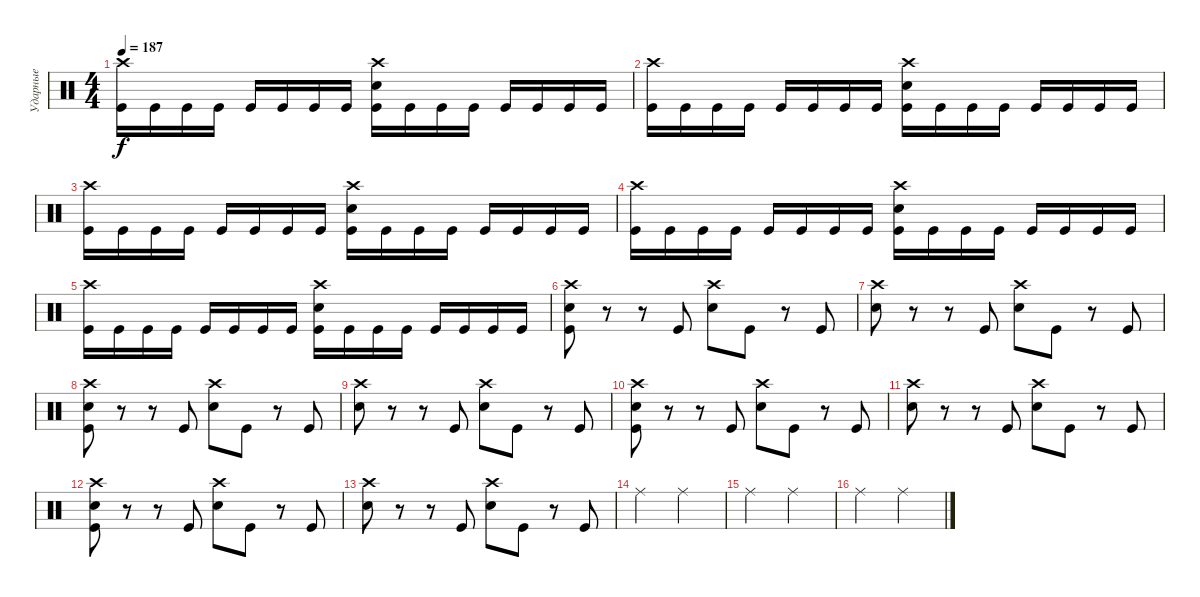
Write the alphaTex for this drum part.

\track ("Ударные" "Ударные") {instrument percussion}
\staff {score}
\articulation defaults
\ts (4 4)
\tempo 187
\clef neutral
\ks c
("Crash high (hit)" "Kick (hit)").16{dy f} "Kick (hit)".16 "Kick (hit)".16 "Kick (hit)".16 "Kick (hit)".16 "Kick (hit)".16 "Kick (hit)".16 "Kick (hit)".16 ("Crash high (hit)" "Electric Snare (hit)" "Kick (hit)").16 "Kick (hit)".16 "Kick (hit)".16 "Kick (hit)".16 "Kick (hit)".16 "Kick (hit)".16 "Kick (hit)".16 "Kick (hit)".16 |
("Crash high (hit)" "Kick (hit)").16 "Kick (hit)".16 "Kick (hit)".16 "Kick (hit)".16 "Kick (hit)".16 "Kick (hit)".16 "Kick (hit)".16 "Kick (hit)".16 ("Crash high (hit)" "Electric Snare (hit)" "Kick (hit)").16 "Kick (hit)".16 "Kick (hit)".16 "Kick (hit)".16 "Kick (hit)".16 "Kick (hit)".16 "Kick (hit)".16 "Kick (hit)".16 |
("Crash high (hit)" "Kick (hit)").16 "Kick (hit)".16 "Kick (hit)".16 "Kick (hit)".16 "Kick (hit)".16 "Kick (hit)".16 "Kick (hit)".16 "Kick (hit)".16 ("Crash high (hit)" "Electric Snare (hit)" "Kick (hit)").16 "Kick (hit)".16 "Kick (hit)".16 "Kick (hit)".16 "Kick (hit)".16 "Kick (hit)".16 "Kick (hit)".16 "Kick (hit)".16 |
("Crash high (hit)" "Kick (hit)").16 "Kick (hit)".16 "Kick (hit)".16 "Kick (hit)".16 "Kick (hit)".16 "Kick (hit)".16 "Kick (hit)".16 "Kick (hit)".16 ("Crash high (hit)" "Electric Snare (hit)" "Kick (hit)").16 "Kick (hit)".16 "Kick (hit)".16 "Kick (hit)".16 "Kick (hit)".16 "Kick (hit)".16 "Kick (hit)".16 "Kick (hit)".16 |
("Crash high (hit)" "Kick (hit)").16 "Kick (hit)".16 "Kick (hit)".16 "Kick (hit)".16 "Kick (hit)".16 "Kick (hit)".16 "Kick (hit)".16 "Kick (hit)".16 ("Crash high (hit)" "Electric Snare (hit)" "Kick (hit)").16 "Kick (hit)".16 "Kick (hit)".16 "Kick (hit)".16 "Kick (hit)".16 "Kick (hit)".16 "Kick (hit)".16 "Kick (hit)".16 |
("Crash high (hit)" "Electric Snare (hit)" "Kick (hit)").8 r.8 r.8 "Kick (hit)".8 ("Crash high (hit)" "Electric Snare (hit)").8 "Kick (hit)".8 r.8 "Kick (hit)".8 |
("Crash high (hit)" "Electric Snare (hit)").8 r.8 r.8 "Kick (hit)".8 ("Crash high (hit)" "Electric Snare (hit)").8 "Kick (hit)".8 r.8 "Kick (hit)".8 |
("Crash high (hit)" "Electric Snare (hit)" "Kick (hit)").8 r.8 r.8 "Kick (hit)".8 ("Crash high (hit)" "Electric Snare (hit)").8 "Kick (hit)".8 r.8 "Kick (hit)".8 |
("Crash high (hit)" "Electric Snare (hit)").8 r.8 r.8 "Kick (hit)".8 ("Crash high (hit)" "Electric Snare (hit)").8 "Kick (hit)".8 r.8 "Kick (hit)".8 |
("Crash high (hit)" "Electric Snare (hit)" "Kick (hit)").8 r.8 r.8 "Kick (hit)".8 ("Crash high (hit)" "Electric Snare (hit)").8 "Kick (hit)".8 r.8 "Kick (hit)".8 |
("Crash high (hit)" "Electric Snare (hit)").8 r.8 r.8 "Kick (hit)".8 ("Crash high (hit)" "Electric Snare (hit)").8 "Kick (hit)".8 r.8 "Kick (hit)".8 |
("Crash high (hit)" "Electric Snare (hit)" "Kick (hit)").8 r.8 r.8 "Kick (hit)".8 ("Crash high (hit)" "Electric Snare (hit)").8 "Kick (hit)".8 r.8 "Kick (hit)".8 |
("Crash high (hit)" "Electric Snare (hit)").8 r.8 r.8 "Kick (hit)".8 ("Crash high (hit)" "Electric Snare (hit)").8 "Kick (hit)".8 r.8 "Kick (hit)".8 |
"Ride (middle)".2 "Ride (middle)".2 |
"Ride (middle)".2 "Ride (middle)".2 |
"Ride (middle)".2 "Ride (middle)".2
